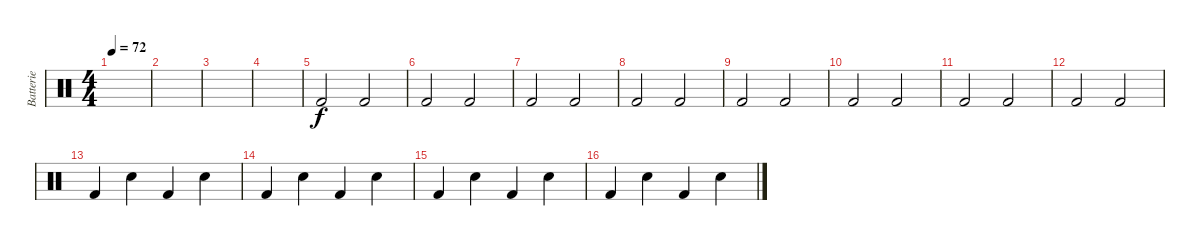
\track ("Batterie" "Batterie") {instrument percussion}
\staff {score}
\articulation defaults
\ts (4 4)
\tempo 72
\clef neutral
\ks c
|
|
|
|
"Kick (hit) 2".2 "Kick (hit) 2".2 |
"Kick (hit) 2".2 "Kick (hit) 2".2 |
"Kick (hit) 2".2 "Kick (hit) 2".2 |
"Kick (hit) 2".2 "Kick (hit) 2".2 |
"Kick (hit) 2".2 "Kick (hit) 2".2 |
"Kick (hit) 2".2 "Kick (hit) 2".2 |
"Kick (hit) 2".2 "Kick (hit) 2".2 |
"Kick (hit) 2".2 "Kick (hit) 2".2 |
"Kick (hit) 2".4 "Electric Snare (hit)".4 "Kick (hit) 2".4 "Electric Snare (hit)".4 |
"Kick (hit) 2".4 "Electric Snare (hit)".4 "Kick (hit) 2".4 "Electric Snare (hit)".4 |
"Kick (hit) 2".4 "Electric Snare (hit)".4 "Kick (hit) 2".4 "Electric Snare (hit)".4 |
"Kick (hit) 2".4 "Electric Snare (hit)".4 "Kick (hit) 2".4 "Electric Snare (hit)".4
